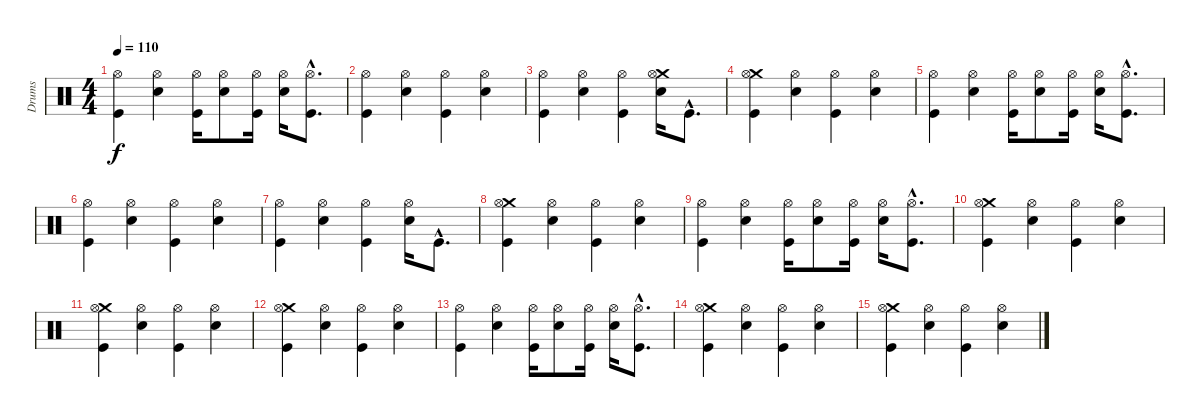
\track ("Drums" "Drums") {instrument percussion}
\staff {score}
\articulation defaults
\ts (4 4)
\tempo 110
\clef neutral
\ks c
("Hi-Hat (open)" "Kick (hit)").4{dy f} ("Hi-Hat (open)" "Snare (hit) 2").4 ("Hi-Hat (open)" "Kick (hit)").16 ("Hi-Hat (open)" "Snare (hit) 2").8 ("Hi-Hat (open)" "Kick (hit)").16 ("Hi-Hat (open)" "Snare (hit) 2").16 ("Hi-Hat (open)"{hac} "Kick (hit)"{hac}).8{d} |
("Hi-Hat (open)" "Kick (hit)").4 ("Hi-Hat (open)" "Snare (hit) 2").4 ("Hi-Hat (open)" "Kick (hit)").4 ("Hi-Hat (open)" "Snare (hit) 2").4 |
("Hi-Hat (open)" "Kick (hit)").4 ("Hi-Hat (open)" "Snare (hit) 2").4 ("Hi-Hat (open)" "Kick (hit)").4 ("Crash medium (hit)" "Hi-Hat (open)" "Snare (hit) 2").16 "Kick (hit)"{hac}.8{d} |
("Crash medium (hit)" "Hi-Hat (open)" "Kick (hit)").4 ("Hi-Hat (open)" "Snare (hit) 2").4 ("Hi-Hat (open)" "Kick (hit)").4 ("Hi-Hat (open)" "Snare (hit) 2").4 |
("Hi-Hat (open)" "Kick (hit)").4 ("Hi-Hat (open)" "Snare (hit) 2").4 ("Hi-Hat (open)" "Kick (hit)").16 ("Hi-Hat (open)" "Snare (hit) 2").8 ("Hi-Hat (open)" "Kick (hit)").16 ("Hi-Hat (open)" "Snare (hit) 2").16 ("Hi-Hat (open)"{hac} "Kick (hit)"{hac}).8{d} |
("Hi-Hat (open)" "Kick (hit)").4 ("Hi-Hat (open)" "Snare (hit) 2").4 ("Hi-Hat (open)" "Kick (hit)").4 ("Hi-Hat (open)" "Snare (hit) 2").4 |
("Hi-Hat (open)" "Kick (hit)").4 ("Hi-Hat (open)" "Snare (hit) 2").4 ("Hi-Hat (open)" "Kick (hit)").4 ("Hi-Hat (open)" "Snare (hit) 2").16 "Kick (hit)"{hac}.8{d} |
("Crash medium (hit)" "Hi-Hat (open)" "Kick (hit)").4 ("Hi-Hat (open)" "Snare (hit) 2").4 ("Hi-Hat (open)" "Kick (hit)").4 ("Hi-Hat (open)" "Snare (hit) 2").4 |
("Hi-Hat (open)" "Kick (hit)").4 ("Hi-Hat (open)" "Snare (hit) 2").4 ("Hi-Hat (open)" "Kick (hit)").16 ("Hi-Hat (open)" "Snare (hit) 2").8 ("Hi-Hat (open)" "Kick (hit)").16 ("Hi-Hat (open)" "Snare (hit) 2").16 ("Hi-Hat (open)"{hac} "Kick (hit)"{hac}).8{d} |
("Crash medium (hit)" "Hi-Hat (open)" "Kick (hit)").4 ("Hi-Hat (open)" "Snare (hit) 2").4 ("Hi-Hat (open)" "Kick (hit)").4 ("Hi-Hat (open)" "Snare (hit) 2").4 |
("Crash medium (hit)" "Hi-Hat (open)" "Kick (hit)").4 ("Hi-Hat (open)" "Snare (hit) 2").4 ("Hi-Hat (open)" "Kick (hit)").4 ("Hi-Hat (open)" "Snare (hit) 2").4 |
("Crash medium (hit)" "Hi-Hat (open)" "Kick (hit)").4 ("Hi-Hat (open)" "Snare (hit) 2").4 ("Hi-Hat (open)" "Kick (hit)").4 ("Hi-Hat (open)" "Snare (hit) 2").4 |
("Hi-Hat (open)" "Kick (hit)").4 ("Hi-Hat (open)" "Snare (hit) 2").4 ("Hi-Hat (open)" "Kick (hit)").16 ("Hi-Hat (open)" "Snare (hit) 2").8 ("Hi-Hat (open)" "Kick (hit)").16 ("Hi-Hat (open)" "Snare (hit) 2").16 ("Hi-Hat (open)"{hac} "Kick (hit)"{hac}).8{d} |
("Crash medium (hit)" "Hi-Hat (open)" "Kick (hit)").4 ("Hi-Hat (open)" "Snare (hit) 2").4 ("Hi-Hat (open)" "Kick (hit)").4 ("Hi-Hat (open)" "Snare (hit) 2").4 |
("Crash medium (hit)" "Hi-Hat (open)" "Kick (hit)").4 ("Hi-Hat (open)" "Snare (hit) 2").4 ("Hi-Hat (open)" "Kick (hit)").4 ("Hi-Hat (open)" "Snare (hit) 2").4
